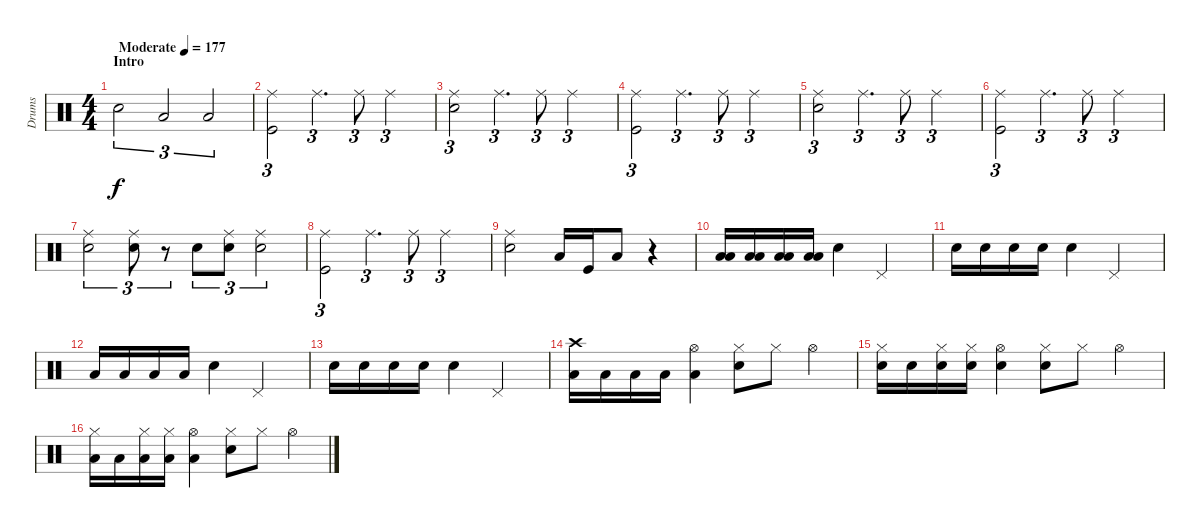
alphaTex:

\track ("Drums" "Drums") {instrument percussion}
\staff {score}
\articulation defaults
\ts (4 4)
\section ("" "Intro")
\tempo (177 "Moderate")
\clef neutral
\ks c "Snare (hit) 2".2{tu (3 2) dy f} "Low Tom (hit)".2{tu (3 2)} "Low Floor Tom (hit)".2{tu (3 2)}
|
("Ride (middle)" "Kick (hit)").2{tu (3 2)} "Ride (middle)".4{d tu (3 2)} "Ride (middle)".8{tu (3 2)} "Ride (middle)".2{tu (3 2)} |
("Ride (middle)" "Snare (hit) 2").2{tu (3 2)} "Ride (middle)".4{d tu (3 2)} "Ride (middle)".8{tu (3 2)} "Ride (middle)".2{tu (3 2)} |
("Ride (middle)" "Kick (hit)").2{tu (3 2)} "Ride (middle)".4{d tu (3 2)} "Ride (middle)".8{tu (3 2)} "Ride (middle)".2{tu (3 2)} |
("Ride (middle)" "Snare (hit) 2").2{tu (3 2)} "Ride (middle)".4{d tu (3 2)} "Ride (middle)".8{tu (3 2)} "Ride (middle)".2{tu (3 2)} |
("Ride (middle)" "Kick (hit)").2{tu (3 2)} "Ride (middle)".4{d tu (3 2)} "Ride (middle)".8{tu (3 2)} "Ride (middle)".2{tu (3 2)} |
("Ride (middle)" "Snare (hit) 2").2{tu (3 2)} ("Ride (middle)" "Snare (hit) 2").8{tu (3 2)} r.8{tu (3 2)} "Snare (hit) 2".8{tu (3 2)} ("Ride (middle)" "Snare (hit) 2").8{tu (3 2)} ("Ride (middle)" "Snare (hit) 2").2{tu (3 2)} |
("Ride (middle)" "Kick (hit)").2{tu (3 2)} "Ride (middle)".4{d tu (3 2)} "Ride (middle)".8{tu (3 2)} "Ride (middle)".2{tu (3 2)} |
("Ride (middle)" "Snare (hit) 2").2 "Low Tom (hit)".16 "Kick (hit)".16 "Low Tom (hit)".8 r.4 |
("Low Tom (hit)" "Low Tom (hit)").16 ("Low Tom (hit)" "Low Tom (hit)").16 ("Low Tom (hit)" "Low Tom (hit)").16 ("Low Tom (hit)" "Low Tom (hit)").16 "Snare (hit) 2".4 "Pedal Hi-Hat (hit)".2 |
"Snare (hit) 2".16 "Snare (hit) 2".16 "Snare (hit) 2".16 "Snare (hit) 2".16 "Snare (hit) 2".4 "Pedal Hi-Hat (hit)".2 |
"Low Tom (hit)".16 "Low Tom (hit)".16 "Low Tom (hit)".16 "Low Tom (hit)".16 "Snare (hit) 2".4 "Pedal Hi-Hat (hit)".2 |
"Snare (hit) 2".16 "Snare (hit) 2".16 "Snare (hit) 2".16 "Snare (hit) 2".16 "Snare (hit) 2".4 "Pedal Hi-Hat (hit)".2 |
("Crash high (hit)" "Low Tom (hit)").16 "Low Tom (hit)".16 "Low Tom (hit)".16 "Low Tom (hit)".16 ("Hi-Hat (open)" "Low Tom (hit)").4 ("Hi-Hat (closed)" "Snare (hit) 2").8 "Hi-Hat (closed)".8 "Hi-Hat (open)".4 |
("Hi-Hat (closed)" "Snare (hit) 2").16 "Snare (hit) 2".16 ("Hi-Hat (closed)" "Snare (hit) 2").16 ("Hi-Hat (closed)" "Snare (hit) 2").16 ("Hi-Hat (open)" "Snare (hit) 2").4 ("Hi-Hat (closed)" "Snare (hit) 2").8 "Hi-Hat (closed)".8 "Hi-Hat (open)".4 |
("Hi-Hat (closed)" "Low Tom (hit)").16 "Low Tom (hit)".16 ("Hi-Hat (closed)" "Low Tom (hit)").16 ("Hi-Hat (closed)" "Low Tom (hit)").16 ("Hi-Hat (open)" "Low Tom (hit)").4 ("Hi-Hat (closed)" "Snare (hit) 2").8 "Hi-Hat (closed)".8 "Hi-Hat (open)".4
